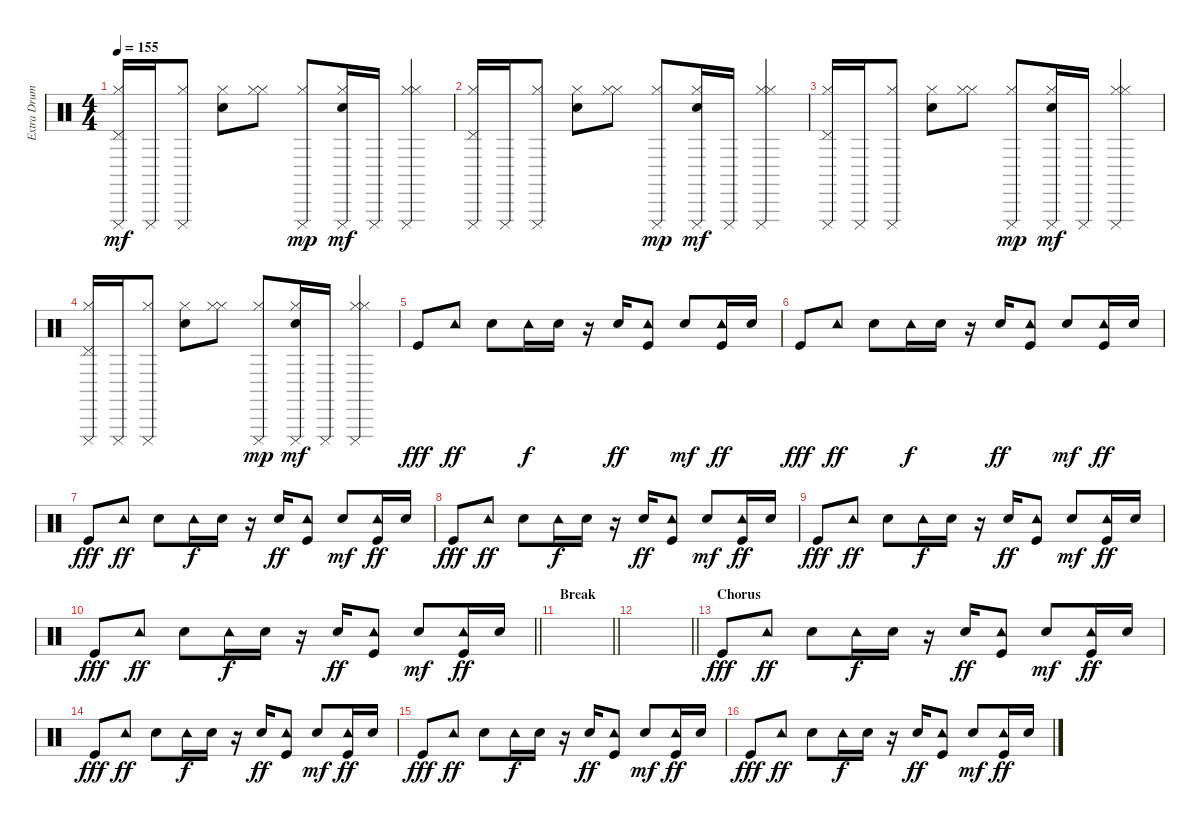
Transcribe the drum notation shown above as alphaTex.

\track ("Extra Drums" "Extra Drum") {instrument percussion}
\staff {score}
\articulation defaults
\ts (4 4)
\tempo 155
\clef neutral
\ks c
("Hi-Hat (closed)" "Pedal Hi-Hat (hit)" "Cuica (mute)").16{dy mf} "Cuica (mute)".16 ("Hi-Hat (closed)" "Cuica (mute)").8 ("Electric Snare (hit)" "Hi-Hat (closed)").8 ("Hi-Hat (closed)" "Hi-Hat (closed)").8 ("Hi-Hat (closed)" "Cuica (mute)").8{dy mp} ("Electric Snare (hit)" "Hi-Hat (closed)" "Cuica (mute)").16{dy mf} "Cuica (mute)".16 ("Hi-Hat (closed)" "Hi-Hat (closed)" "Cuica (mute)").4 |
("Hi-Hat (closed)" "Pedal Hi-Hat (hit)" "Cuica (mute)").16 "Cuica (mute)".16 ("Hi-Hat (closed)" "Cuica (mute)").8 ("Electric Snare (hit)" "Hi-Hat (closed)").8 ("Hi-Hat (closed)" "Hi-Hat (closed)").8 ("Hi-Hat (closed)" "Cuica (mute)").8{dy mp} ("Electric Snare (hit)" "Hi-Hat (closed)" "Cuica (mute)").16{dy mf} "Cuica (mute)".16 ("Hi-Hat (closed)" "Hi-Hat (closed)" "Cuica (mute)").4 |
("Hi-Hat (closed)" "Pedal Hi-Hat (hit)" "Cuica (mute)").16 "Cuica (mute)".16 ("Hi-Hat (closed)" "Cuica (mute)").8 ("Electric Snare (hit)" "Hi-Hat (closed)").8 ("Hi-Hat (closed)" "Hi-Hat (closed)").8 ("Hi-Hat (closed)" "Cuica (mute)").8{dy mp} ("Electric Snare (hit)" "Hi-Hat (closed)" "Cuica (mute)").16{dy mf} "Cuica (mute)".16 ("Hi-Hat (closed)" "Hi-Hat (closed)" "Cuica (mute)").4 |
("Hi-Hat (closed)" "Pedal Hi-Hat (hit)" "Cuica (mute)").16 "Cuica (mute)".16 ("Hi-Hat (closed)" "Cuica (mute)").8 ("Electric Snare (hit)" "Hi-Hat (closed)").8 ("Hi-Hat (closed)" "Hi-Hat (closed)").8 ("Hi-Hat (closed)" "Cuica (mute)").8{dy mp} ("Electric Snare (hit)" "Hi-Hat (closed)" "Cuica (mute)").16{dy mf} "Cuica (mute)".16 ("Hi-Hat (closed)" "Hi-Hat (closed)" "Cuica (mute)").4 |
"Kick (hit)".8{dy fff} "Tambourine (hit)".8{dy ff} "Electric Snare (hit)".8 "Tambourine (hit)".16{dy f} "Electric Snare (hit)".16 r.16 "Electric Snare (hit)".16{dy ff} ("Kick (hit)" "Tambourine (hit)").8 "Electric Snare (hit)".8{dy mf} ("Kick (hit)" "Tambourine (hit)").16{dy ff} "Electric Snare (hit)".16 |
"Kick (hit)".8{dy fff} "Tambourine (hit)".8{dy ff} "Electric Snare (hit)".8 "Tambourine (hit)".16{dy f} "Electric Snare (hit)".16 r.16 "Electric Snare (hit)".16{dy ff} ("Kick (hit)" "Tambourine (hit)").8 "Electric Snare (hit)".8{dy mf} ("Kick (hit)" "Tambourine (hit)").16{dy ff} "Electric Snare (hit)".16 |
"Kick (hit)".8{dy fff} "Tambourine (hit)".8{dy ff} "Electric Snare (hit)".8 "Tambourine (hit)".16{dy f} "Electric Snare (hit)".16 r.16 "Electric Snare (hit)".16{dy ff} ("Kick (hit)" "Tambourine (hit)").8 "Electric Snare (hit)".8{dy mf} ("Kick (hit)" "Tambourine (hit)").16{dy ff} "Electric Snare (hit)".16 |
"Kick (hit)".8{dy fff} "Tambourine (hit)".8{dy ff} "Electric Snare (hit)".8 "Tambourine (hit)".16{dy f} "Electric Snare (hit)".16 r.16 "Electric Snare (hit)".16{dy ff} ("Kick (hit)" "Tambourine (hit)").8 "Electric Snare (hit)".8{dy mf} ("Kick (hit)" "Tambourine (hit)").16{dy ff} "Electric Snare (hit)".16 |
"Kick (hit)".8{dy fff} "Tambourine (hit)".8{dy ff} "Electric Snare (hit)".8 "Tambourine (hit)".16{dy f} "Electric Snare (hit)".16 r.16 "Electric Snare (hit)".16{dy ff} ("Kick (hit)" "Tambourine (hit)").8 "Electric Snare (hit)".8{dy mf} ("Kick (hit)" "Tambourine (hit)").16{dy ff} "Electric Snare (hit)".16 |
\barLineRight lightlight "Kick (hit)".8{dy fff} "Tambourine (hit)".8{dy ff} "Electric Snare (hit)".8 "Tambourine (hit)".16{dy f} "Electric Snare (hit)".16
r.16 "Electric Snare (hit)".16{dy ff} ("Kick (hit)" "Tambourine (hit)").8 "Electric Snare (hit)".8{dy mf} ("Kick (hit)" "Tambourine (hit)").16{dy ff} "Electric Snare (hit)".16 |
\section ("" "Break")
\barLineRight lightlight
|
\barLineRight lightlight
|
\section ("" "Chorus")
"Kick (hit)".8{dy fff} "Tambourine (hit)".8{dy ff} "Electric Snare (hit)".8 "Tambourine (hit)".16{dy f} "Electric Snare (hit)".16 r.16 "Electric Snare (hit)".16{dy ff} ("Kick (hit)" "Tambourine (hit)").8 "Electric Snare (hit)".8{dy mf} ("Kick (hit)" "Tambourine (hit)").16{dy ff} "Electric Snare (hit)".16 |
"Kick (hit)".8{dy fff} "Tambourine (hit)".8{dy ff} "Electric Snare (hit)".8 "Tambourine (hit)".16{dy f} "Electric Snare (hit)".16 r.16 "Electric Snare (hit)".16{dy ff} ("Kick (hit)" "Tambourine (hit)").8 "Electric Snare (hit)".8{dy mf} ("Kick (hit)" "Tambourine (hit)").16{dy ff} "Electric Snare (hit)".16 |
"Kick (hit)".8{dy fff} "Tambourine (hit)".8{dy ff} "Electric Snare (hit)".8 "Tambourine (hit)".16{dy f} "Electric Snare (hit)".16 r.16 "Electric Snare (hit)".16{dy ff} ("Kick (hit)" "Tambourine (hit)").8 "Electric Snare (hit)".8{dy mf} ("Kick (hit)" "Tambourine (hit)").16{dy ff} "Electric Snare (hit)".16 |
"Kick (hit)".8{dy fff} "Tambourine (hit)".8{dy ff} "Electric Snare (hit)".8 "Tambourine (hit)".16{dy f} "Electric Snare (hit)".16 r.16 "Electric Snare (hit)".16{dy ff} ("Kick (hit)" "Tambourine (hit)").8 "Electric Snare (hit)".8{dy mf} ("Kick (hit)" "Tambourine (hit)").16{dy ff} "Electric Snare (hit)".16
